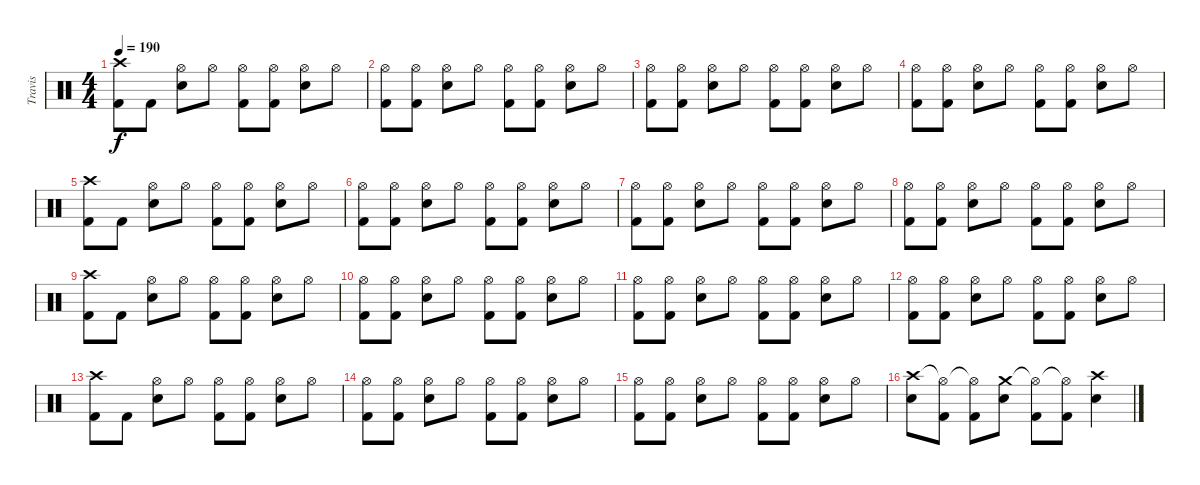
\track ("Travis" "Travis") {instrument percussion}
\staff {score}
\articulation defaults
\ts (4 4)
\tempo 190
\clef neutral
\ks c
("Crash high (hit)" "Kick (hit) 2").8{dy f} "Kick (hit) 2".8 ("Hi-Hat (open)" "Electric Snare (hit)").8 "Hi-Hat (open)".8 ("Hi-Hat (open)" "Kick (hit) 2").8 ("Hi-Hat (open)" "Kick (hit) 2").8 ("Hi-Hat (open)" "Electric Snare (hit)").8 "Hi-Hat (open)".8 |
("Hi-Hat (open)" "Kick (hit) 2").8 ("Hi-Hat (open)" "Kick (hit) 2").8 ("Hi-Hat (open)" "Electric Snare (hit)").8 "Hi-Hat (open)".8 ("Hi-Hat (open)" "Kick (hit) 2").8 ("Hi-Hat (open)" "Kick (hit) 2").8 ("Hi-Hat (open)" "Electric Snare (hit)").8 "Hi-Hat (open)".8 |
("Hi-Hat (open)" "Kick (hit) 2").8 ("Hi-Hat (open)" "Kick (hit) 2").8 ("Hi-Hat (open)" "Electric Snare (hit)").8 "Hi-Hat (open)".8 ("Hi-Hat (open)" "Kick (hit) 2").8 ("Hi-Hat (open)" "Kick (hit) 2").8 ("Hi-Hat (open)" "Electric Snare (hit)").8 "Hi-Hat (open)".8 |
("Hi-Hat (open)" "Kick (hit) 2").8 ("Hi-Hat (open)" "Kick (hit) 2").8 ("Hi-Hat (open)" "Electric Snare (hit)").8 "Hi-Hat (open)".8 ("Hi-Hat (open)" "Kick (hit) 2").8 ("Hi-Hat (open)" "Kick (hit) 2").8 ("Hi-Hat (open)" "Electric Snare (hit)").8 "Hi-Hat (open)".8 |
("Crash high (hit)" "Kick (hit) 2").8 "Kick (hit) 2".8 ("Hi-Hat (open)" "Electric Snare (hit)").8 "Hi-Hat (open)".8 ("Hi-Hat (open)" "Kick (hit) 2").8 ("Hi-Hat (open)" "Kick (hit) 2").8 ("Hi-Hat (open)" "Electric Snare (hit)").8 "Hi-Hat (open)".8 |
("Hi-Hat (open)" "Kick (hit) 2").8 ("Hi-Hat (open)" "Kick (hit) 2").8 ("Hi-Hat (open)" "Electric Snare (hit)").8 "Hi-Hat (open)".8 ("Hi-Hat (open)" "Kick (hit) 2").8 ("Hi-Hat (open)" "Kick (hit) 2").8 ("Hi-Hat (open)" "Electric Snare (hit)").8 "Hi-Hat (open)".8 |
("Hi-Hat (open)" "Kick (hit) 2").8 ("Hi-Hat (open)" "Kick (hit) 2").8 ("Hi-Hat (open)" "Electric Snare (hit)").8 "Hi-Hat (open)".8 ("Hi-Hat (open)" "Kick (hit) 2").8 ("Hi-Hat (open)" "Kick (hit) 2").8 ("Hi-Hat (open)" "Electric Snare (hit)").8 "Hi-Hat (open)".8 |
("Hi-Hat (open)" "Kick (hit) 2").8 ("Hi-Hat (open)" "Kick (hit) 2").8 ("Hi-Hat (open)" "Electric Snare (hit)").8 "Hi-Hat (open)".8 ("Hi-Hat (open)" "Kick (hit) 2").8 ("Hi-Hat (open)" "Kick (hit) 2").8 ("Hi-Hat (open)" "Electric Snare (hit)").8 "Hi-Hat (open)".8 |
("Crash high (hit)" "Kick (hit) 2").8 "Kick (hit) 2".8 ("Hi-Hat (open)" "Electric Snare (hit)").8 "Hi-Hat (open)".8 ("Hi-Hat (open)" "Kick (hit) 2").8 ("Hi-Hat (open)" "Kick (hit) 2").8 ("Hi-Hat (open)" "Electric Snare (hit)").8 "Hi-Hat (open)".8 |
("Hi-Hat (open)" "Kick (hit) 2").8 ("Hi-Hat (open)" "Kick (hit) 2").8 ("Hi-Hat (open)" "Electric Snare (hit)").8 "Hi-Hat (open)".8 ("Hi-Hat (open)" "Kick (hit) 2").8 ("Hi-Hat (open)" "Kick (hit) 2").8 ("Hi-Hat (open)" "Electric Snare (hit)").8 "Hi-Hat (open)".8 |
("Hi-Hat (open)" "Kick (hit) 2").8 ("Hi-Hat (open)" "Kick (hit) 2").8 ("Hi-Hat (open)" "Electric Snare (hit)").8 "Hi-Hat (open)".8 ("Hi-Hat (open)" "Kick (hit) 2").8 ("Hi-Hat (open)" "Kick (hit) 2").8 ("Hi-Hat (open)" "Electric Snare (hit)").8 "Hi-Hat (open)".8 |
("Hi-Hat (open)" "Kick (hit) 2").8 ("Hi-Hat (open)" "Kick (hit) 2").8 ("Hi-Hat (open)" "Electric Snare (hit)").8 "Hi-Hat (open)".8 ("Hi-Hat (open)" "Kick (hit) 2").8 ("Hi-Hat (open)" "Kick (hit) 2").8 ("Hi-Hat (open)" "Electric Snare (hit)").8 "Hi-Hat (open)".8 |
("Crash high (hit)" "Kick (hit) 2").8 "Kick (hit) 2".8 ("Hi-Hat (open)" "Electric Snare (hit)").8 "Hi-Hat (open)".8 ("Hi-Hat (open)" "Kick (hit) 2").8 ("Hi-Hat (open)" "Kick (hit) 2").8 ("Hi-Hat (open)" "Electric Snare (hit)").8 "Hi-Hat (open)".8 |
("Hi-Hat (open)" "Kick (hit) 2").8 ("Hi-Hat (open)" "Kick (hit) 2").8 ("Hi-Hat (open)" "Electric Snare (hit)").8 "Hi-Hat (open)".8 ("Hi-Hat (open)" "Kick (hit) 2").8 ("Hi-Hat (open)" "Kick (hit) 2").8 ("Hi-Hat (open)" "Electric Snare (hit)").8 "Hi-Hat (open)".8 |
("Hi-Hat (open)" "Kick (hit) 2").8 ("Hi-Hat (open)" "Kick (hit) 2").8 ("Hi-Hat (open)" "Electric Snare (hit)").8 "Hi-Hat (open)".8 ("Hi-Hat (open)" "Kick (hit) 2").8 ("Hi-Hat (open)" "Kick (hit) 2").8 ("Hi-Hat (open)" "Electric Snare (hit)").8 "Hi-Hat (open)".8 |
("Crash high (hit)" "Electric Snare (hit)").8 ("Hi-Hat (open)"{t} "Kick (hit) 2").8 ("Hi-Hat (open)"{t} "Kick (hit) 2").8 ("Crash medium (hit)" "Electric Snare (hit)").8 ("Hi-Hat (open)"{t} "Kick (hit) 2").8 ("Hi-Hat (open)"{t} "Kick (hit) 2").8 ("Crash high (hit)" "Electric Snare (hit)").4
